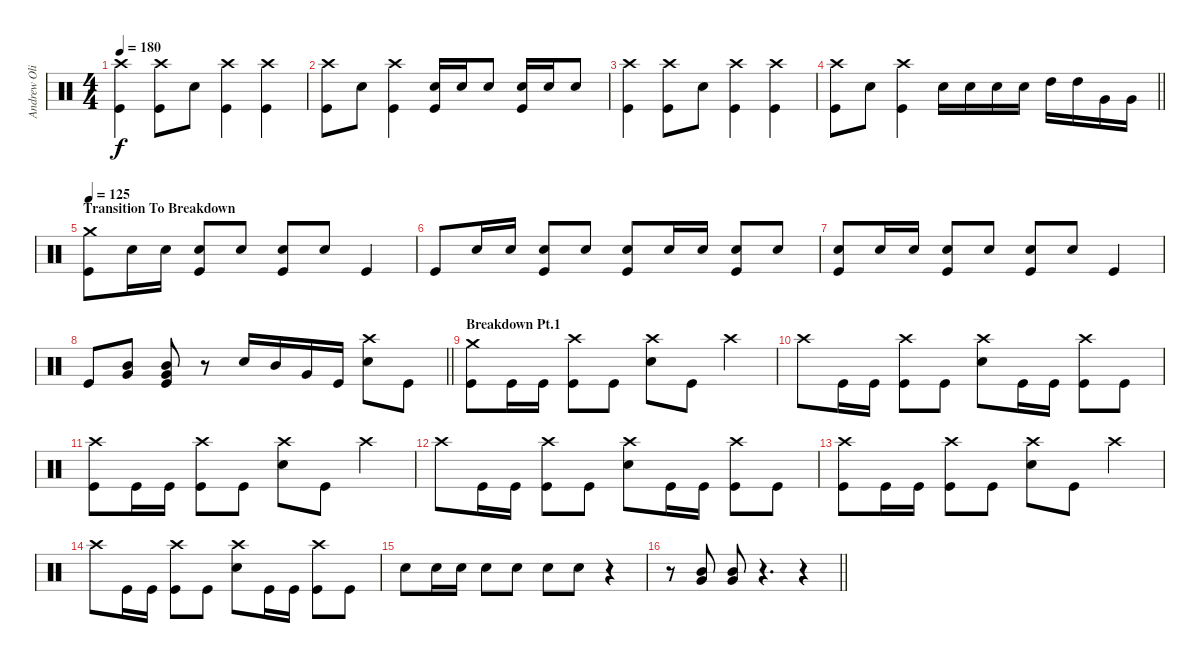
\track ("Andrew Oliver" "Andrew Oli") {instrument percussion}
\staff {score}
\articulation defaults
\ts (4 4)
\tempo 180
\clef neutral
\ks c
("Crash high (hit)" "Kick (hit)").4{dy f} ("Crash high (hit)" "Kick (hit)").8 "Electric Snare (hit)".8 ("Crash high (hit)" "Kick (hit)").4 ("Crash high (hit)" "Kick (hit)").4 |
("Crash high (hit)" "Kick (hit)").8 "Electric Snare (hit)".8 ("Crash high (hit)" "Kick (hit)").4 ("Kick (hit)" "Electric Snare (hit)").16 "Electric Snare (hit)".16 "Electric Snare (hit)".8 ("Kick (hit)" "Electric Snare (hit)").16 "Electric Snare (hit)".16 "Electric Snare (hit)".8 |
("Crash high (hit)" "Kick (hit)").4 ("Crash high (hit)" "Kick (hit)").8 "Electric Snare (hit)".8 ("Crash high (hit)" "Kick (hit)").4 ("Crash high (hit)" "Kick (hit)").4 |
\barLineRight lightlight
("Crash high (hit)" "Kick (hit)").8 "Electric Snare (hit)".8 ("Crash high (hit)" "Kick (hit)").4 "Electric Snare (hit)".16 "Electric Snare (hit)".16 "Electric Snare (hit)".16 "Electric Snare (hit)".16 "High Tom (hit)".16 "High Tom (hit)".16 "Very Low Tom (hit)".16 "Very Low Tom (hit)".16 |
\section ("" "Transition To Breakdown")
\tempo 125
("Crash medium (hit)" "Kick (hit)").8 "Electric Snare (hit)".16 "Electric Snare (hit)".16 ("Electric Snare (hit)" "Kick (hit)").8 "Electric Snare (hit)".8 ("Electric Snare (hit)" "Kick (hit)").8 "Electric Snare (hit)".8 "Kick (hit)".4 |
"Kick (hit)".8 "Electric Snare (hit)".16 "Electric Snare (hit)".16 ("Electric Snare (hit)" "Kick (hit)").8 "Electric Snare (hit)".8 ("Electric Snare (hit)" "Kick (hit)").8 "Electric Snare (hit)".16 "Electric Snare (hit)".16 ("Electric Snare (hit)" "Kick (hit)").8 "Electric Snare (hit)".8 |
("Electric Snare (hit)" "Kick (hit)").8 "Electric Snare (hit)".16 "Electric Snare (hit)".16 ("Electric Snare (hit)" "Kick (hit)").8 "Electric Snare (hit)".8 ("Electric Snare (hit)" "Kick (hit)").8 "Electric Snare (hit)".8 "Kick (hit)".4 |
\barLineRight lightlight "Kick (hit)".8
("Mid Tom (hit)" "Very Low Tom (hit)").8 ("Mid Tom (hit)" "Very Low Tom (hit)" "Kick (hit)").8 r.8 "Electric Snare (hit)".16 "Mid Tom (hit)".16 "Very Low Tom (hit)".16 "Kick (hit)".16 ("Crash high (hit)" "Electric Snare (hit)").8 "Kick (hit)".8 |
\section ("" "Breakdown Pt.1")
("Crash medium (hit)" "Kick (hit)").8 "Kick (hit)".16 "Kick (hit)".16 ("Crash high (hit)" "Kick (hit)").8 "Kick (hit)".8 ("Crash high (hit)" "Electric Snare (hit)").8 "Kick (hit)".8 "Crash high (hit)".4 |
"Crash high (hit)".8 "Kick (hit)".16 "Kick (hit)".16 ("Crash high (hit)" "Kick (hit)").8 "Kick (hit)".8 ("Crash high (hit)" "Electric Snare (hit)").8 "Kick (hit)".16 "Kick (hit)".16 ("Crash high (hit)" "Kick (hit)").8 "Kick (hit)".8 |
("Crash high (hit)" "Kick (hit)").8 "Kick (hit)".16 "Kick (hit)".16 ("Crash high (hit)" "Kick (hit)").8 "Kick (hit)".8 ("Crash high (hit)" "Electric Snare (hit)").8 "Kick (hit)".8 "Crash high (hit)".4 |
"Crash high (hit)".8 "Kick (hit)".16 "Kick (hit)".16 ("Crash high (hit)" "Kick (hit)").8 "Kick (hit)".8 ("Crash high (hit)" "Electric Snare (hit)").8 "Kick (hit)".16 "Kick (hit)".16 ("Crash high (hit)" "Kick (hit)").8 "Kick (hit)".8 |
("Crash high (hit)" "Kick (hit)").8 "Kick (hit)".16 "Kick (hit)".16 ("Crash high (hit)" "Kick (hit)").8 "Kick (hit)".8 ("Crash high (hit)" "Electric Snare (hit)").8 "Kick (hit)".8 "Crash high (hit)".4 |
"Crash high (hit)".8 "Kick (hit)".16 "Kick (hit)".16 ("Crash high (hit)" "Kick (hit)").8 "Kick (hit)".8 ("Crash high (hit)" "Electric Snare (hit)").8 "Kick (hit)".16 "Kick (hit)".16 ("Crash high (hit)" "Kick (hit)").8 "Kick (hit)".8 |
"Electric Snare (hit)".8 "Electric Snare (hit)".16 "Electric Snare (hit)".16 "Electric Snare (hit)".8 "Electric Snare (hit)".8 "Electric Snare (hit)".8 "Electric Snare (hit)".8 r.4 |
\barLineRight lightlight
r.8 ("Mid Tom (hit)" "Very Low Tom (hit)").8 ("Mid Tom (hit)" "Very Low Tom (hit)").8 r.4{d} r.4
